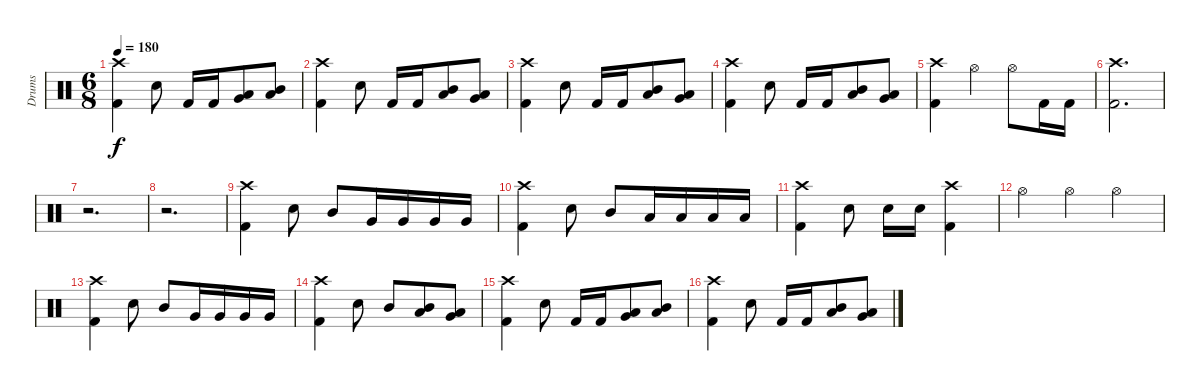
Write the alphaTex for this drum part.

\track ("Drums" "Drums") {instrument percussion}
\staff {score}
\articulation defaults
\ts (6 8)
\tempo 180
\clef neutral
\ks c
("Crash high (hit)" "Kick (hit) 2").4{dy f} "Snare (hit) 2".8 "Kick (hit) 2".16 "Kick (hit) 2".16 ("Low Tom (hit)" "Very Low Tom (hit)").8 ("Mid Tom (hit)" "Low Tom (hit)").8 |
("Crash high (hit)" "Kick (hit) 2").4 "Snare (hit) 2".8 "Kick (hit) 2".16 "Kick (hit) 2".16 ("Mid Tom (hit)" "Low Tom (hit)").8 ("Low Tom (hit)" "Very Low Tom (hit)").8 |
("Crash high (hit)" "Kick (hit) 2").4 "Snare (hit) 2".8 "Kick (hit) 2".16 "Kick (hit) 2".16 ("Mid Tom (hit)" "Low Tom (hit)").8 ("Low Tom (hit)" "Very Low Tom (hit)").8 |
("Crash high (hit)" "Kick (hit) 2").4 "Snare (hit) 2".8 "Kick (hit) 2".16 "Kick (hit) 2".16 ("Mid Tom (hit)" "Low Tom (hit)").8 ("Low Tom (hit)" "Very Low Tom (hit)").8 |
("Crash high (hit)" "Kick (hit) 2").4 "Hi-Hat (open)".4 "Hi-Hat (open)".8 "Kick (hit) 2".16 "Kick (hit) 2".16 |
("Crash high (hit)" "Kick (hit) 2").2{d} |
r.2{d} |
r.2{d} |
("Crash high (hit)" "Kick (hit) 2").4 "Snare (hit) 2".8 "Mid Tom (hit)".8 "Very Low Tom (hit)".16 "Very Low Tom (hit)".16 "Very Low Tom (hit)".16 "Very Low Tom (hit)".16 |
("Crash high (hit)" "Kick (hit) 2").4 "Snare (hit) 2".8 "Mid Tom (hit)".8 "Low Tom (hit)".16 "Low Tom (hit)".16 "Low Tom (hit)".16 "Low Tom (hit)".16 |
("Crash high (hit)" "Kick (hit) 2").4 "Snare (hit) 2".8 "Snare (hit) 2".16 "Snare (hit) 2".16 ("Crash high (hit)" "Kick (hit) 2").4 |
"Hi-Hat (open)".4 "Hi-Hat (open)".4 "Hi-Hat (open)".4 |
("Crash high (hit)" "Kick (hit) 2").4 "Snare (hit) 2".8 "Mid Tom (hit)".8 "Very Low Tom (hit)".16 "Very Low Tom (hit)".16 "Very Low Tom (hit)".16 "Very Low Tom (hit)".16 |
("Crash high (hit)" "Kick (hit) 2").4 "Snare (hit) 2".8 "Mid Tom (hit)".8 ("Mid Tom (hit)" "Low Tom (hit)").8 ("Low Tom (hit)" "Very Low Tom (hit)").8 |
("Crash high (hit)" "Kick (hit) 2").4 "Snare (hit) 2".8 "Kick (hit) 2".16 "Kick (hit) 2".16 ("Low Tom (hit)" "Very Low Tom (hit)").8 ("Mid Tom (hit)" "Low Tom (hit)").8 |
("Crash high (hit)" "Kick (hit) 2").4 "Snare (hit) 2".8 "Kick (hit) 2".16 "Kick (hit) 2".16 ("Mid Tom (hit)" "Low Tom (hit)").8 ("Low Tom (hit)" "Very Low Tom (hit)").8
